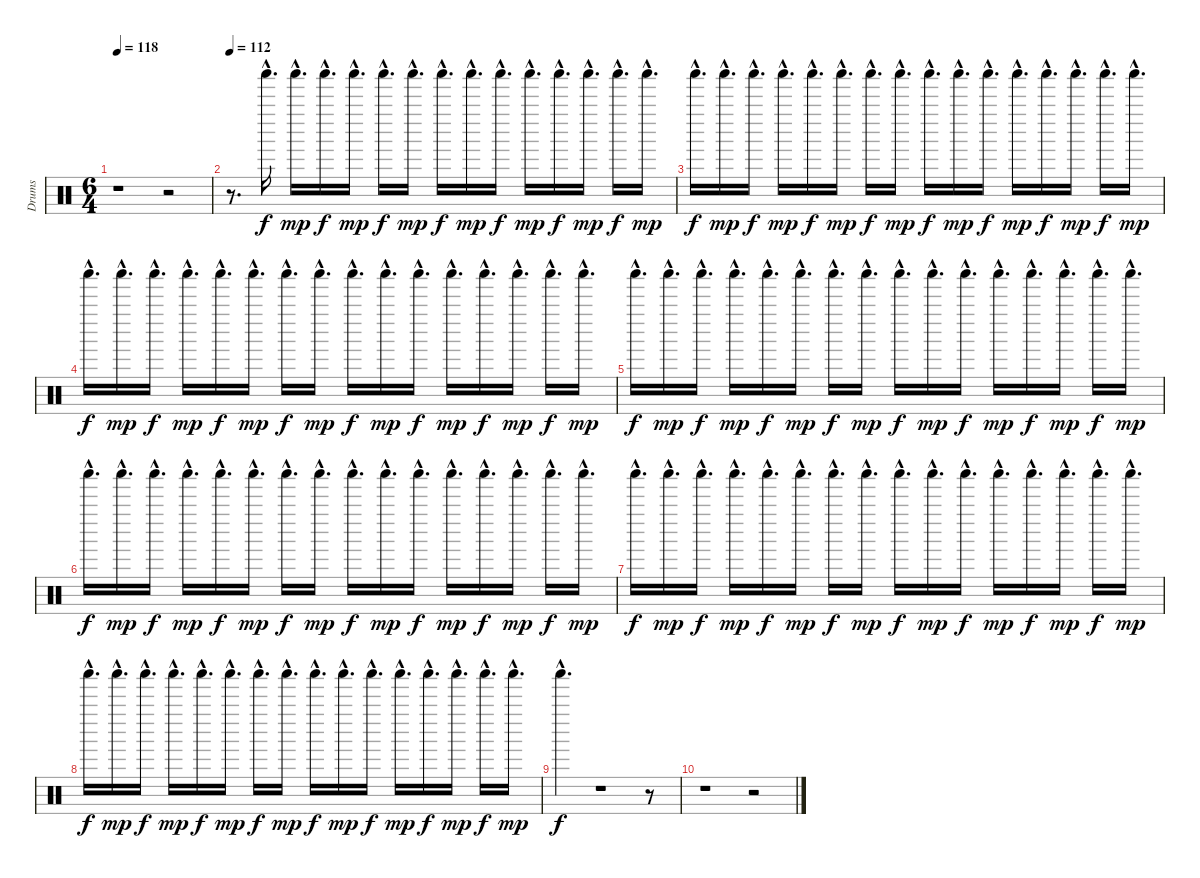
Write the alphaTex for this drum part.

\track ("Drums" "Drums") {instrument percussion}
\staff {score}
\articulation defaults
\ts (6 4)
\tempo 118
\clef neutral
\ks c
r.1{dy mp} r.2 |
\tempo 112
r.8{d} "Shaker (hit)"{hac}.16{d dy f volume 4} "Shaker (hit)"{hac}.16{d dy mp volume 4} "Shaker (hit)"{hac}.16{d dy f volume 10} "Shaker (hit)"{hac}.16{d dy mp volume 10} "Shaker (hit)"{hac}.16{d dy f volume 11} "Shaker (hit)"{hac}.16{d dy mp volume 12} "Shaker (hit)"{hac}.16{d dy f volume 12} "Shaker (hit)"{hac}.16{d dy mp volume 13} "Shaker (hit)"{hac}.16{d dy f volume 14} "Shaker (hit)"{hac}.16{d dy mp volume 14} "Shaker (hit)"{hac}.16{d dy f} "Shaker (hit)"{hac}.16{d dy mp} "Shaker (hit)"{hac}.16{d dy f} "Shaker (hit)"{hac}.16{d dy mp} |
"Shaker (hit)"{hac}.16{d dy f} "Shaker (hit)"{hac}.16{d dy mp} "Shaker (hit)"{hac}.16{d dy f} "Shaker (hit)"{hac}.16{d dy mp} "Shaker (hit)"{hac}.16{d dy f} "Shaker (hit)"{hac}.16{d dy mp} "Shaker (hit)"{hac}.16{d dy f} "Shaker (hit)"{hac}.16{d dy mp} "Shaker (hit)"{hac}.16{d dy f} "Shaker (hit)"{hac}.16{d dy mp} "Shaker (hit)"{hac}.16{d dy f} "Shaker (hit)"{hac}.16{d dy mp} "Shaker (hit)"{hac}.16{d dy f} "Shaker (hit)"{hac}.16{d dy mp} "Shaker (hit)"{hac}.16{d dy f} "Shaker (hit)"{hac}.16{d dy mp} |
"Shaker (hit)"{hac}.16{d dy f} "Shaker (hit)"{hac}.16{d dy mp} "Shaker (hit)"{hac}.16{d dy f} "Shaker (hit)"{hac}.16{d dy mp} "Shaker (hit)"{hac}.16{d dy f} "Shaker (hit)"{hac}.16{d dy mp} "Shaker (hit)"{hac}.16{d dy f} "Shaker (hit)"{hac}.16{d dy mp} "Shaker (hit)"{hac}.16{d dy f} "Shaker (hit)"{hac}.16{d dy mp} "Shaker (hit)"{hac}.16{d dy f} "Shaker (hit)"{hac}.16{d dy mp} "Shaker (hit)"{hac}.16{d dy f} "Shaker (hit)"{hac}.16{d dy mp} "Shaker (hit)"{hac}.16{d dy f} "Shaker (hit)"{hac}.16{d dy mp} |
"Shaker (hit)"{hac}.16{d dy f} "Shaker (hit)"{hac}.16{d dy mp} "Shaker (hit)"{hac}.16{d dy f} "Shaker (hit)"{hac}.16{d dy mp} "Shaker (hit)"{hac}.16{d dy f} "Shaker (hit)"{hac}.16{d dy mp} "Shaker (hit)"{hac}.16{d dy f} "Shaker (hit)"{hac}.16{d dy mp} "Shaker (hit)"{hac}.16{d dy f} "Shaker (hit)"{hac}.16{d dy mp} "Shaker (hit)"{hac}.16{d dy f} "Shaker (hit)"{hac}.16{d dy mp} "Shaker (hit)"{hac}.16{d dy f} "Shaker (hit)"{hac}.16{d dy mp} "Shaker (hit)"{hac}.16{d dy f} "Shaker (hit)"{hac}.16{d dy mp} |
"Shaker (hit)"{hac}.16{d dy f} "Shaker (hit)"{hac}.16{d dy mp} "Shaker (hit)"{hac}.16{d dy f} "Shaker (hit)"{hac}.16{d dy mp} "Shaker (hit)"{hac}.16{d dy f} "Shaker (hit)"{hac}.16{d dy mp} "Shaker (hit)"{hac}.16{d dy f} "Shaker (hit)"{hac}.16{d dy mp} "Shaker (hit)"{hac}.16{d dy f} "Shaker (hit)"{hac}.16{d dy mp} "Shaker (hit)"{hac}.16{d dy f} "Shaker (hit)"{hac}.16{d dy mp} "Shaker (hit)"{hac}.16{d dy f} "Shaker (hit)"{hac}.16{d dy mp} "Shaker (hit)"{hac}.16{d dy f} "Shaker (hit)"{hac}.16{d dy mp} |
"Shaker (hit)"{hac}.16{d dy f} "Shaker (hit)"{hac}.16{d dy mp} "Shaker (hit)"{hac}.16{d dy f} "Shaker (hit)"{hac}.16{d dy mp} "Shaker (hit)"{hac}.16{d dy f} "Shaker (hit)"{hac}.16{d dy mp} "Shaker (hit)"{hac}.16{d dy f} "Shaker (hit)"{hac}.16{d dy mp} "Shaker (hit)"{hac}.16{d dy f} "Shaker (hit)"{hac}.16{d dy mp} "Shaker (hit)"{hac}.16{d dy f} "Shaker (hit)"{hac}.16{d dy mp} "Shaker (hit)"{hac}.16{d dy f} "Shaker (hit)"{hac}.16{d dy mp} "Shaker (hit)"{hac}.16{d dy f} "Shaker (hit)"{hac}.16{d dy mp} |
"Shaker (hit)"{hac}.16{d dy f} "Shaker (hit)"{hac}.16{d dy mp} "Shaker (hit)"{hac}.16{d dy f} "Shaker (hit)"{hac}.16{d dy mp} "Shaker (hit)"{hac}.16{d dy f} "Shaker (hit)"{hac}.16{d dy mp} "Shaker (hit)"{hac}.16{d dy f} "Shaker (hit)"{hac}.16{d dy mp} "Shaker (hit)"{hac}.16{d dy f} "Shaker (hit)"{hac}.16{d dy mp} "Shaker (hit)"{hac}.16{d dy f} "Shaker (hit)"{hac}.16{d dy mp} "Shaker (hit)"{hac}.16{d dy f} "Shaker (hit)"{hac}.16{d dy mp} "Shaker (hit)"{hac}.16{d dy f} "Shaker (hit)"{hac}.16{d dy mp} |
"Shaker (hit)"{hac}.4{d dy f} r.1 r.8 |
r.1 r.2
